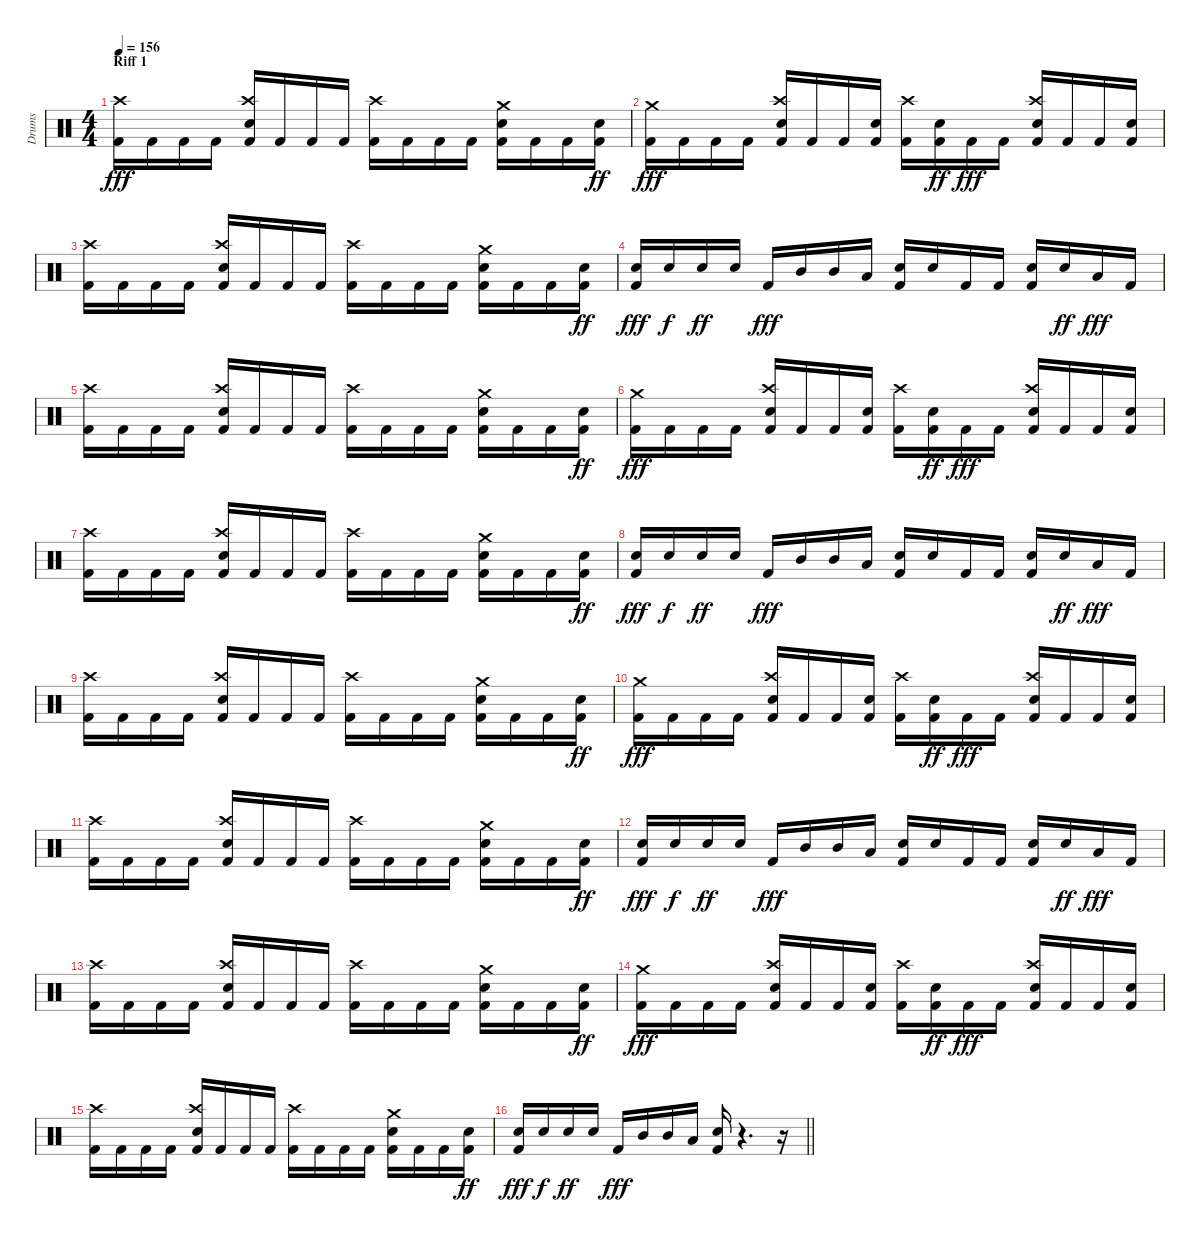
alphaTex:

\track ("Drums" "Drums") {instrument percussion}
\staff {score}
\articulation defaults
\ts (4 4)
\section ("" "Riff 1")
\tempo 156
\clef neutral
\ks c
("Kick (hit) 2" "Crash high (hit)").16{dy fff} "Kick (hit) 2".16 "Kick (hit) 2".16 "Kick (hit) 2".16 ("Kick (hit) 2" "Snare (hit) 2" "Crash high (hit)").16 "Kick (hit) 2".16 "Kick (hit) 2".16 "Kick (hit) 2".16 ("Kick (hit) 2" "Crash high (hit)").16 "Kick (hit) 2".16 "Kick (hit) 2".16 "Kick (hit) 2".16 ("Kick (hit) 2" "Snare (hit) 2" "Crash medium (hit)").16 "Kick (hit) 2".16 "Kick (hit) 2".16 ("Kick (hit) 2" "Snare (hit) 2").16{dy ff} |
("Kick (hit) 2" "Crash medium (hit)").16{dy fff} "Kick (hit) 2".16 "Kick (hit) 2".16 "Kick (hit) 2".16 ("Kick (hit) 2" "Snare (hit) 2" "Crash high (hit)").16 "Kick (hit) 2".16 "Kick (hit) 2".16 ("Kick (hit) 2" "Snare (hit) 2").16 ("Kick (hit) 2" "Crash high (hit)").16 ("Kick (hit) 2" "Snare (hit) 2").16{dy ff} "Kick (hit) 2".16{dy fff} "Kick (hit) 2".16 ("Kick (hit) 2" "Snare (hit) 2" "Crash high (hit)").16 "Kick (hit) 2".16 "Kick (hit) 2".16 ("Kick (hit) 2" "Snare (hit) 2").16 |
("Kick (hit) 2" "Crash high (hit)").16 "Kick (hit) 2".16 "Kick (hit) 2".16 "Kick (hit) 2".16 ("Kick (hit) 2" "Snare (hit) 2" "Crash high (hit)").16 "Kick (hit) 2".16 "Kick (hit) 2".16 "Kick (hit) 2".16 ("Kick (hit) 2" "Crash high (hit)").16 "Kick (hit) 2".16 "Kick (hit) 2".16 "Kick (hit) 2".16 ("Kick (hit) 2" "Snare (hit) 2" "Crash medium (hit)").16 "Kick (hit) 2".16 "Kick (hit) 2".16 ("Kick (hit) 2" "Snare (hit) 2").16{dy ff} |
("Kick (hit) 2" "Snare (hit) 2").16{dy fff} "Snare (hit) 2".16{dy f} "Snare (hit) 2".16{dy ff} "Snare (hit) 2".16 "Kick (hit) 2".16{dy fff} "Mid Tom (hit)".16 "Mid Tom (hit)".16 "Low Tom (hit)".16 ("Kick (hit) 2" "Snare (hit) 2").16 "Snare (hit) 2".16 "Kick (hit) 2".16 "Kick (hit) 2".16 ("Kick (hit) 2" "Snare (hit) 2").16 "Snare (hit) 2".16{dy ff} "Low Tom (hit)".16{dy fff} "Kick (hit) 2".16 |
("Kick (hit) 2" "Crash high (hit)").16 "Kick (hit) 2".16 "Kick (hit) 2".16 "Kick (hit) 2".16 ("Kick (hit) 2" "Snare (hit) 2" "Crash high (hit)").16 "Kick (hit) 2".16 "Kick (hit) 2".16 "Kick (hit) 2".16 ("Kick (hit) 2" "Crash high (hit)").16 "Kick (hit) 2".16 "Kick (hit) 2".16 "Kick (hit) 2".16 ("Kick (hit) 2" "Snare (hit) 2" "Crash medium (hit)").16 "Kick (hit) 2".16 "Kick (hit) 2".16 ("Kick (hit) 2" "Snare (hit) 2").16{dy ff} |
("Kick (hit) 2" "Crash medium (hit)").16{dy fff} "Kick (hit) 2".16 "Kick (hit) 2".16 "Kick (hit) 2".16 ("Kick (hit) 2" "Snare (hit) 2" "Crash high (hit)").16 "Kick (hit) 2".16 "Kick (hit) 2".16 ("Kick (hit) 2" "Snare (hit) 2").16 ("Kick (hit) 2" "Crash high (hit)").16 ("Kick (hit) 2" "Snare (hit) 2").16{dy ff} "Kick (hit) 2".16{dy fff} "Kick (hit) 2".16 ("Kick (hit) 2" "Snare (hit) 2" "Crash high (hit)").16 "Kick (hit) 2".16 "Kick (hit) 2".16 ("Kick (hit) 2" "Snare (hit) 2").16 |
("Kick (hit) 2" "Crash high (hit)").16 "Kick (hit) 2".16 "Kick (hit) 2".16 "Kick (hit) 2".16 ("Kick (hit) 2" "Snare (hit) 2" "Crash high (hit)").16 "Kick (hit) 2".16 "Kick (hit) 2".16 "Kick (hit) 2".16 ("Kick (hit) 2" "Crash high (hit)").16 "Kick (hit) 2".16 "Kick (hit) 2".16 "Kick (hit) 2".16 ("Kick (hit) 2" "Snare (hit) 2" "Crash medium (hit)").16 "Kick (hit) 2".16 "Kick (hit) 2".16 ("Kick (hit) 2" "Snare (hit) 2").16{dy ff} |
("Kick (hit) 2" "Snare (hit) 2").16{dy fff} "Snare (hit) 2".16{dy f} "Snare (hit) 2".16{dy ff} "Snare (hit) 2".16 "Kick (hit) 2".16{dy fff} "Mid Tom (hit)".16 "Mid Tom (hit)".16 "Low Tom (hit)".16 ("Kick (hit) 2" "Snare (hit) 2").16 "Snare (hit) 2".16 "Kick (hit) 2".16 "Kick (hit) 2".16 ("Kick (hit) 2" "Snare (hit) 2").16 "Snare (hit) 2".16{dy ff} "Low Tom (hit)".16{dy fff} "Kick (hit) 2".16 |
("Kick (hit) 2" "Crash high (hit)").16 "Kick (hit) 2".16 "Kick (hit) 2".16 "Kick (hit) 2".16 ("Kick (hit) 2" "Snare (hit) 2" "Crash high (hit)").16 "Kick (hit) 2".16 "Kick (hit) 2".16 "Kick (hit) 2".16 ("Kick (hit) 2" "Crash high (hit)").16 "Kick (hit) 2".16 "Kick (hit) 2".16 "Kick (hit) 2".16 ("Kick (hit) 2" "Snare (hit) 2" "Crash medium (hit)").16 "Kick (hit) 2".16 "Kick (hit) 2".16 ("Kick (hit) 2" "Snare (hit) 2").16{dy ff} |
("Kick (hit) 2" "Crash medium (hit)").16{dy fff} "Kick (hit) 2".16 "Kick (hit) 2".16 "Kick (hit) 2".16 ("Kick (hit) 2" "Snare (hit) 2" "Crash high (hit)").16 "Kick (hit) 2".16 "Kick (hit) 2".16 ("Kick (hit) 2" "Snare (hit) 2").16 ("Kick (hit) 2" "Crash high (hit)").16 ("Kick (hit) 2" "Snare (hit) 2").16{dy ff} "Kick (hit) 2".16{dy fff} "Kick (hit) 2".16 ("Kick (hit) 2" "Snare (hit) 2" "Crash high (hit)").16 "Kick (hit) 2".16 "Kick (hit) 2".16 ("Kick (hit) 2" "Snare (hit) 2").16 |
("Kick (hit) 2" "Crash high (hit)").16 "Kick (hit) 2".16 "Kick (hit) 2".16 "Kick (hit) 2".16 ("Kick (hit) 2" "Snare (hit) 2" "Crash high (hit)").16 "Kick (hit) 2".16 "Kick (hit) 2".16 "Kick (hit) 2".16 ("Kick (hit) 2" "Crash high (hit)").16 "Kick (hit) 2".16 "Kick (hit) 2".16 "Kick (hit) 2".16 ("Kick (hit) 2" "Snare (hit) 2" "Crash medium (hit)").16 "Kick (hit) 2".16 "Kick (hit) 2".16 ("Kick (hit) 2" "Snare (hit) 2").16{dy ff} |
("Kick (hit) 2" "Snare (hit) 2").16{dy fff} "Snare (hit) 2".16{dy f} "Snare (hit) 2".16{dy ff} "Snare (hit) 2".16 "Kick (hit) 2".16{dy fff} "Mid Tom (hit)".16 "Mid Tom (hit)".16 "Low Tom (hit)".16 ("Kick (hit) 2" "Snare (hit) 2").16 "Snare (hit) 2".16 "Kick (hit) 2".16 "Kick (hit) 2".16 ("Kick (hit) 2" "Snare (hit) 2").16 "Snare (hit) 2".16{dy ff} "Low Tom (hit)".16{dy fff} "Kick (hit) 2".16 |
("Kick (hit) 2" "Crash high (hit)").16 "Kick (hit) 2".16 "Kick (hit) 2".16 "Kick (hit) 2".16 ("Kick (hit) 2" "Snare (hit) 2" "Crash high (hit)").16 "Kick (hit) 2".16 "Kick (hit) 2".16 "Kick (hit) 2".16 ("Kick (hit) 2" "Crash high (hit)").16 "Kick (hit) 2".16 "Kick (hit) 2".16 "Kick (hit) 2".16 ("Kick (hit) 2" "Snare (hit) 2" "Crash medium (hit)").16 "Kick (hit) 2".16 "Kick (hit) 2".16 ("Kick (hit) 2" "Snare (hit) 2").16{dy ff} |
("Kick (hit) 2" "Crash medium (hit)").16{dy fff} "Kick (hit) 2".16 "Kick (hit) 2".16 "Kick (hit) 2".16 ("Kick (hit) 2" "Snare (hit) 2" "Crash high (hit)").16 "Kick (hit) 2".16 "Kick (hit) 2".16 ("Kick (hit) 2" "Snare (hit) 2").16 ("Kick (hit) 2" "Crash high (hit)").16 ("Kick (hit) 2" "Snare (hit) 2").16{dy ff} "Kick (hit) 2".16{dy fff} "Kick (hit) 2".16 ("Kick (hit) 2" "Snare (hit) 2" "Crash high (hit)").16 "Kick (hit) 2".16 "Kick (hit) 2".16 ("Kick (hit) 2" "Snare (hit) 2").16 |
("Kick (hit) 2" "Crash high (hit)").16 "Kick (hit) 2".16 "Kick (hit) 2".16 "Kick (hit) 2".16 ("Kick (hit) 2" "Snare (hit) 2" "Crash high (hit)").16 "Kick (hit) 2".16 "Kick (hit) 2".16 "Kick (hit) 2".16 ("Kick (hit) 2" "Crash high (hit)").16 "Kick (hit) 2".16 "Kick (hit) 2".16 "Kick (hit) 2".16 ("Kick (hit) 2" "Snare (hit) 2" "Crash medium (hit)").16 "Kick (hit) 2".16 "Kick (hit) 2".16 ("Kick (hit) 2" "Snare (hit) 2").16{dy ff} |
\barLineRight lightlight
("Kick (hit) 2" "Snare (hit) 2").16{dy fff} "Snare (hit) 2".16{dy f} "Snare (hit) 2".16{dy ff} "Snare (hit) 2".16 "Kick (hit) 2".16{dy fff} "Mid Tom (hit)".16 "Mid Tom (hit)".16 "Low Tom (hit)".16 ("Kick (hit) 2" "Snare (hit) 2").16 r.4{d} r.16
